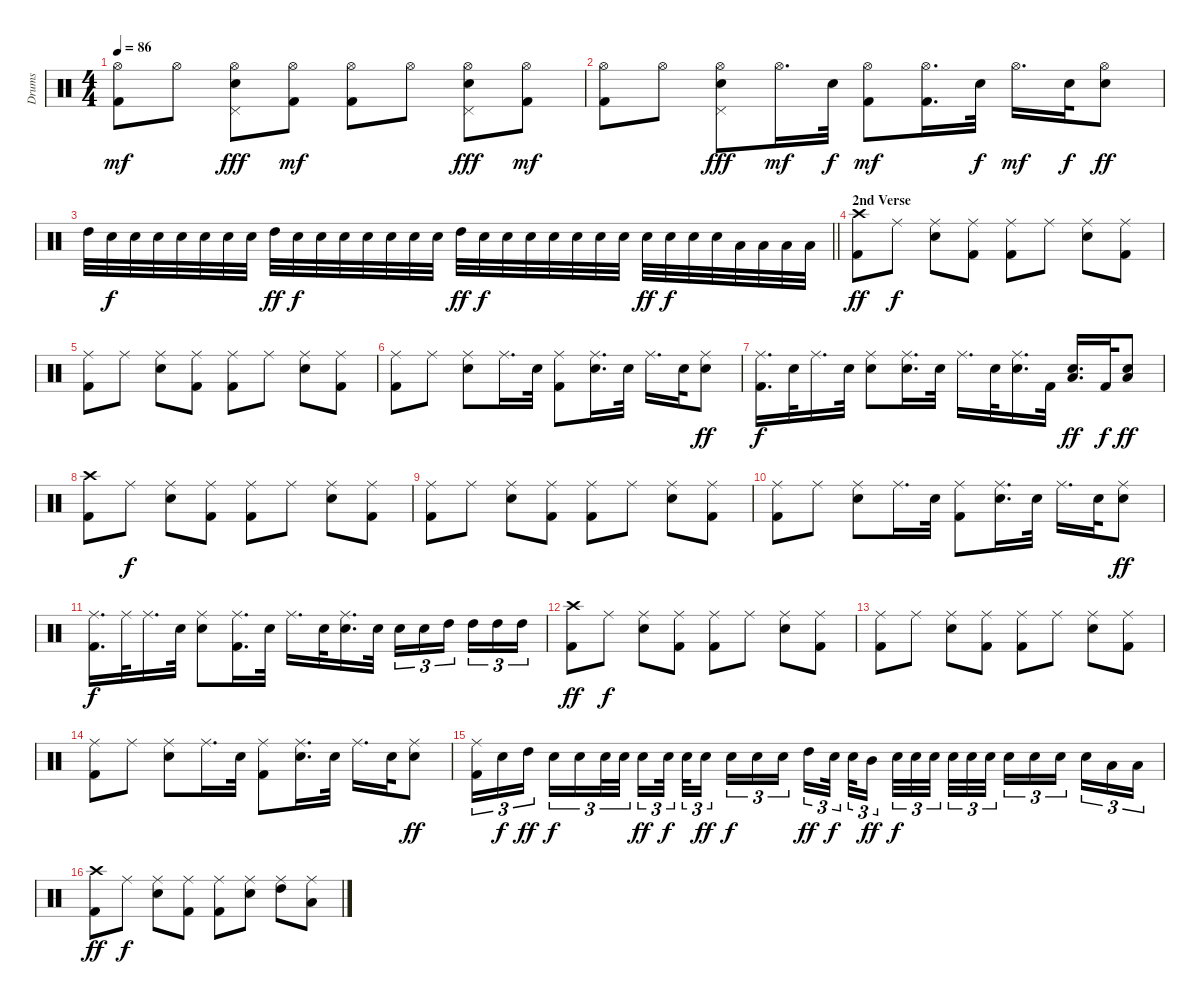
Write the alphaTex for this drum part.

\track ("Drums" "Drums") {instrument percussion}
\staff {score}
\articulation defaults
\ts (4 4)
\tempo 86
\clef neutral
\ks c
("Hi-Hat (open)" "Kick (hit) 2").8{dy mf} "Hi-Hat (open)".8 ("Hi-Hat (open)" "Electric Snare (hit)" "Pedal Hi-Hat (hit)").8{dy fff} ("Hi-Hat (open)" "Kick (hit) 2").8{dy mf} ("Hi-Hat (open)" "Kick (hit) 2").8 "Hi-Hat (open)".8 ("Hi-Hat (open)" "Electric Snare (hit)" "Pedal Hi-Hat (hit)").8{dy fff} ("Hi-Hat (open)" "Kick (hit) 2").8{dy mf} |
("Hi-Hat (open)" "Kick (hit) 2").8 "Hi-Hat (open)".8 ("Hi-Hat (open)" "Electric Snare (hit)" "Pedal Hi-Hat (hit)").8{dy fff} "Hi-Hat (open)".16{d dy mf} "Electric Snare (hit)".32{dy f} ("Hi-Hat (open)" "Kick (hit) 2").8{dy mf} ("Hi-Hat (open)" "Kick (hit) 2").16{d} "Electric Snare (hit)".32{dy f} "Hi-Hat (open)".16{d dy mf} "Electric Snare (hit)".32{dy f} ("Hi-Hat (open)" "Electric Snare (hit)").8{dy ff} |
\barLineRight lightlight "High Tom (hit)".32 "Electric Snare (hit)".32{dy f} "Electric Snare (hit)".32 "Electric Snare (hit)".32 "Electric Snare (hit)".32 "Electric Snare (hit)".32 "Electric Snare (hit)".32 "Electric Snare (hit)".32 "High Tom (hit)".32{dy ff} "Electric Snare (hit)".32{dy f} "Electric Snare (hit)".32 "Electric Snare (hit)".32 "Electric Snare (hit)".32 "Electric Snare (hit)".32 "Electric Snare (hit)".32 "Electric Snare (hit)".32 "High Tom (hit)".32{dy ff} "Electric Snare (hit)".32{dy f} "Electric Snare (hit)".32 "Electric Snare (hit)".32 "Electric Snare (hit)".32 "Electric Snare (hit)".32 "Electric Snare (hit)".32 "Electric Snare (hit)".32 "Electric Snare (hit)".32{dy ff} "Electric Snare (hit)".32{dy f} "Electric Snare (hit)".32 "Electric Snare (hit)".32 "Low Tom (hit)".32 "Low Tom (hit)".32 "Low Tom (hit)".32 "Low Tom (hit)".32
|
\section ("" "2nd Verse")
("Crash high (hit)" "Kick (hit) 2").8{dy ff} "Ride (middle)".8{dy f} ("Ride (middle)" "Electric Snare (hit)").8 ("Ride (middle)" "Kick (hit) 2").8 ("Ride (middle)" "Kick (hit) 2").8 "Ride (middle)".8 ("Ride (middle)" "Electric Snare (hit)").8 ("Ride (middle)" "Kick (hit) 2").8 |
("Ride (middle)" "Kick (hit) 2").8 "Ride (middle)".8 ("Ride (middle)" "Electric Snare (hit)").8 ("Ride (middle)" "Kick (hit) 2").8 ("Ride (middle)" "Kick (hit) 2").8 "Ride (middle)".8 ("Ride (middle)" "Electric Snare (hit)").8 ("Ride (middle)" "Kick (hit) 2").8 |
("Ride (middle)" "Kick (hit) 2").8 "Ride (middle)".8 ("Ride (middle)" "Electric Snare (hit)").8 "Ride (middle)".16{d} "Electric Snare (hit)".32 ("Ride (middle)" "Kick (hit) 2").8 ("Ride (middle)" "Electric Snare (hit)").16{d} "Electric Snare (hit)".32 "Ride (middle)".16{d} "Electric Snare (hit)".32 ("Ride (middle)" "Electric Snare (hit)").8{dy ff} |
("Ride (middle)" "Kick (hit) 2").16{d dy f} "Electric Snare (hit)".32 "Ride (middle)".16{d} "Electric Snare (hit)".32 ("Ride (middle)" "Electric Snare (hit)").8 ("Ride (middle)" "Electric Snare (hit)").16{d} "Electric Snare (hit)".32 "Ride (middle)".16{d} "Electric Snare (hit)".32 ("Ride (middle)" "Electric Snare (hit)").16{d} "Kick (hit) 2".32 ("Low Tom (hit)" "Electric Snare (hit)").16{d dy ff} "Kick (hit) 2".32{dy f} ("Low Tom (hit)" "Electric Snare (hit)").8{dy ff} |
("Crash high (hit)" "Kick (hit) 2").8 "Ride (middle)".8{dy f} ("Ride (middle)" "Electric Snare (hit)").8 ("Ride (middle)" "Kick (hit) 2").8 ("Ride (middle)" "Kick (hit) 2").8 "Ride (middle)".8 ("Ride (middle)" "Electric Snare (hit)").8 ("Ride (middle)" "Kick (hit) 2").8 |
("Ride (middle)" "Kick (hit) 2").8 "Ride (middle)".8 ("Ride (middle)" "Electric Snare (hit)").8 ("Ride (middle)" "Kick (hit) 2").8 ("Ride (middle)" "Kick (hit) 2").8 "Ride (middle)".8 ("Ride (middle)" "Electric Snare (hit)").8 ("Ride (middle)" "Kick (hit) 2").8 |
("Ride (middle)" "Kick (hit) 2").8 "Ride (middle)".8 ("Ride (middle)" "Electric Snare (hit)").8 "Ride (middle)".16{d} "Electric Snare (hit)".32 ("Ride (middle)" "Kick (hit) 2").8 ("Ride (middle)" "Electric Snare (hit)").16{d} "Electric Snare (hit)".32 "Ride (middle)".16{d} "Electric Snare (hit)".32 ("Ride (middle)" "Electric Snare (hit)").8{dy ff} |
("Ride (middle)" "Kick (hit) 2").16{d dy f} "Ride (middle)".32 "Ride (middle)".16{d} "Electric Snare (hit)".32 ("Ride (middle)" "Electric Snare (hit)").8 ("Ride (middle)" "Kick (hit) 2").16{d} "Electric Snare (hit)".32 "Ride (middle)".16{d} "Electric Snare (hit)".32 ("Ride (middle)" "Electric Snare (hit)").16{d} "Electric Snare (hit)".32 "Electric Snare (hit)".16{tu (3 2)} "Electric Snare (hit)".16{tu (3 2)} "High Tom (hit)".16{tu (3 2)} "High Tom (hit)".16{tu (3 2)} "High Tom (hit)".16{tu (3 2)} "High Tom (hit)".16{tu (3 2)} |
("Crash high (hit)" "Kick (hit) 2").8{dy ff} "Ride (middle)".8{dy f} ("Ride (middle)" "Electric Snare (hit)").8 ("Ride (middle)" "Kick (hit) 2").8 ("Ride (middle)" "Kick (hit) 2").8 "Ride (middle)".8 ("Ride (middle)" "Electric Snare (hit)").8 ("Ride (middle)" "Kick (hit) 2").8 |
("Ride (middle)" "Kick (hit) 2").8 "Ride (middle)".8 ("Ride (middle)" "Electric Snare (hit)").8 ("Ride (middle)" "Kick (hit) 2").8 ("Ride (middle)" "Kick (hit) 2").8 "Ride (middle)".8 ("Ride (middle)" "Electric Snare (hit)").8 ("Ride (middle)" "Kick (hit) 2").8 |
("Ride (middle)" "Kick (hit) 2").8 "Ride (middle)".8 ("Ride (middle)" "Electric Snare (hit)").8 "Ride (middle)".16{d} "Electric Snare (hit)".32 ("Ride (middle)" "Kick (hit) 2").8 ("Ride (middle)" "Electric Snare (hit)").16{d} "Electric Snare (hit)".32 "Ride (middle)".16{d} "Electric Snare (hit)".32 ("Ride (middle)" "Electric Snare (hit)").8{dy ff} |
("Ride (middle)" "Kick (hit) 2").16{tu (3 2)} "Electric Snare (hit)".16{tu (3 2) dy f} "High Tom (hit)".16{tu (3 2) dy ff} "Electric Snare (hit)".16{tu (3 2) dy f} "Electric Snare (hit)".16{tu (3 2)} "Electric Snare (hit)".32{tu (3 2)} "Electric Snare (hit)".32{tu (3 2)} "Electric Snare (hit)".16{tu (3 2) dy ff} "Electric Snare (hit)".32{tu (3 2) dy f} "Electric Snare (hit)".32{tu (3 2)} "Electric Snare (hit)".16{tu (3 2) dy ff} "Electric Snare (hit)".16{tu (3 2) dy f} "Electric Snare (hit)".16{tu (3 2)} "Electric Snare (hit)".16{tu (3 2)} "High Tom (hit)".16{tu (3 2) dy ff} "Electric Snare (hit)".32{tu (3 2) dy f} "Electric Snare (hit)".32{tu (3 2)} "Mid Tom (hit)".16{tu (3 2) dy ff} "Electric Snare (hit)".32{tu (3 2) dy f} "Electric Snare (hit)".32{tu (3 2)} "Electric Snare (hit)".32{tu (3 2)} "Electric Snare (hit)".32{tu (3 2)} "Electric Snare (hit)".32{tu (3 2)} "Electric Snare (hit)".32{tu (3 2)} "Electric Snare (hit)".16{tu (3 2)} "Electric Snare (hit)".16{tu (3 2)} "Electric Snare (hit)".16{tu (3 2)} "Electric Snare (hit)".16{tu (3 2)} "Low Tom (hit)".16{tu (3 2)} "Low Tom (hit)".16{tu (3 2)} |
("Crash high (hit)" "Kick (hit) 2").8{dy ff} "Ride (middle)".8{dy f} ("Ride (middle)" "Electric Snare (hit)").8 ("Ride (middle)" "Kick (hit) 2").8 ("Ride (middle)" "Kick (hit) 2").8 ("Ride (middle)" "Electric Snare (hit)").8 ("Ride (middle)" "High Tom (hit)").8 ("Ride (middle)" "Low Tom (hit)").8
